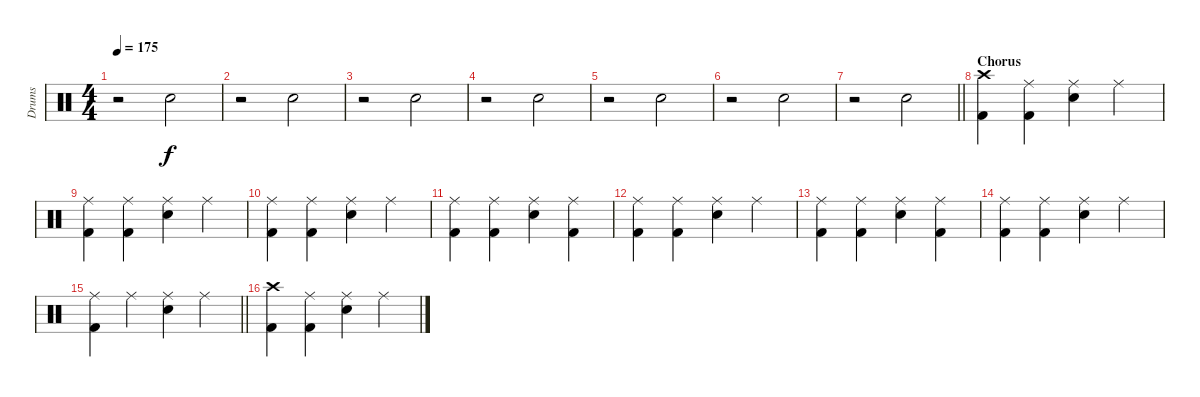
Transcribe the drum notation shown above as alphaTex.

\track ("Drums" "Drums") {instrument percussion}
\staff {score}
\articulation defaults
\ts (4 4)
\tempo 175
\clef neutral
\ks c
r.2{dy f} "Snare (hit) 2".2 |
r.2 "Snare (hit) 2".2 |
r.2 "Snare (hit) 2".2 |
r.2 "Snare (hit) 2".2 |
r.2 "Snare (hit) 2".2 |
r.2 "Snare (hit) 2".2 |
\barLineRight lightlight
r.2 "Snare (hit) 2".2 |
\section ("" "Chorus")
("Crash high (hit)" "Kick (hit) 2").4 ("Ride (middle)" "Kick (hit) 2").4 ("Ride (middle)" "Electric Snare (hit)").4 "Ride (middle)".4 |
("Ride (middle)" "Kick (hit) 2").4 ("Ride (middle)" "Kick (hit) 2").4 ("Ride (middle)" "Electric Snare (hit)").4 "Ride (middle)".4 |
("Ride (middle)" "Kick (hit) 2").4 ("Ride (middle)" "Kick (hit) 2").4 ("Ride (middle)" "Electric Snare (hit)").4 "Ride (middle)".4 |
("Ride (middle)" "Kick (hit) 2").4 ("Ride (middle)" "Kick (hit) 2").4 ("Ride (middle)" "Electric Snare (hit)").4 ("Ride (middle)" "Kick (hit) 2").4 |
("Ride (middle)" "Kick (hit) 2").4 ("Ride (middle)" "Kick (hit) 2").4 ("Ride (middle)" "Electric Snare (hit)").4 "Ride (middle)".4 |
("Ride (middle)" "Kick (hit) 2").4 ("Ride (middle)" "Kick (hit) 2").4 ("Ride (middle)" "Electric Snare (hit)").4 ("Ride (middle)" "Kick (hit) 2").4 |
("Ride (middle)" "Kick (hit) 2").4 ("Ride (middle)" "Kick (hit) 2").4 ("Ride (middle)" "Electric Snare (hit)").4 "Ride (middle)".4 |
\barLineRight lightlight
("Ride (middle)" "Kick (hit) 2").4 "Ride (middle)".4 ("Ride (middle)" "Electric Snare (hit)").4 "Ride (middle)".4 |
("Crash high (hit)" "Kick (hit) 2").4 ("Ride (middle)" "Kick (hit) 2").4 ("Ride (middle)" "Electric Snare (hit)").4 "Ride (middle)".4
